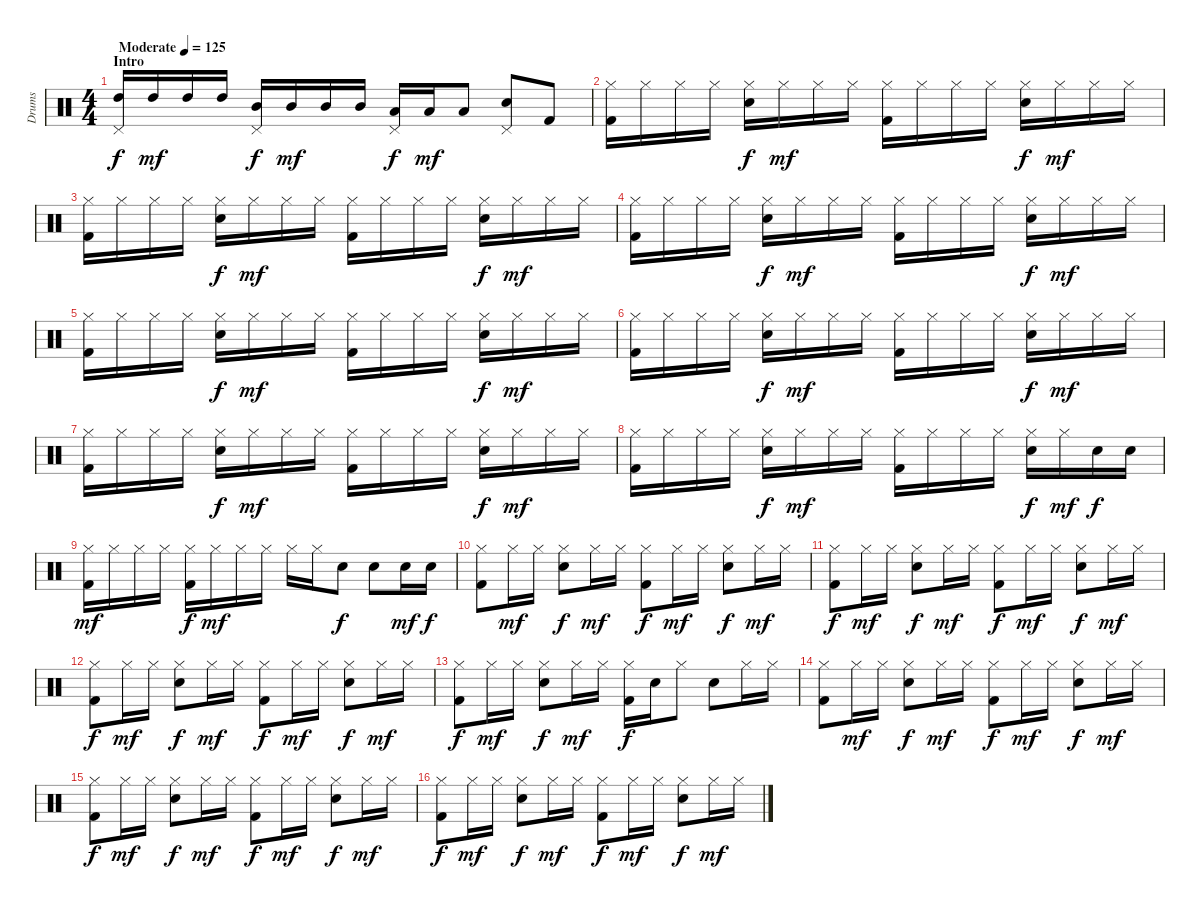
\track ("Drums" "Drums") {instrument percussion}
\staff {score}
\articulation defaults
\ts (4 4)
\section ("" "Intro")
\tempo (125 "Moderate")
\clef neutral
\ks c
("Pedal Hi-Hat (hit)" "High Tom (hit)").16{dy f} "High Tom (hit)".16{dy mf} "High Tom (hit)".16 "High Tom (hit)".16 ("Pedal Hi-Hat (hit)" "Mid Tom (hit)").16{dy f} "Mid Tom (hit)".16{dy mf} "Mid Tom (hit)".16 "Mid Tom (hit)".16 ("Pedal Hi-Hat (hit)" "Low Tom (hit)").16{dy f} "Low Tom (hit)".16{dy mf} "Low Tom (hit)".8 ("Pedal Hi-Hat (hit)" "Snare (hit) 2").8 "Kick (hit) 2".8 |
("Hi-Hat (closed)" "Kick (hit) 2").16 "Hi-Hat (closed)".16 "Hi-Hat (closed)".16 "Hi-Hat (closed)".16 ("Hi-Hat (closed)" "Snare (hit) 2").16{dy f} "Hi-Hat (closed)".16{dy mf} "Hi-Hat (closed)".16 "Hi-Hat (closed)".16 ("Hi-Hat (closed)" "Kick (hit) 2").16 "Hi-Hat (closed)".16 "Hi-Hat (closed)".16 "Hi-Hat (closed)".16 ("Hi-Hat (closed)" "Snare (hit) 2").16{dy f} "Hi-Hat (closed)".16{dy mf} "Hi-Hat (closed)".16 "Hi-Hat (closed)".16 |
("Hi-Hat (closed)" "Kick (hit) 2").16 "Hi-Hat (closed)".16 "Hi-Hat (closed)".16 "Hi-Hat (closed)".16 ("Hi-Hat (closed)" "Snare (hit) 2").16{dy f} "Hi-Hat (closed)".16{dy mf} "Hi-Hat (closed)".16 "Hi-Hat (closed)".16 ("Hi-Hat (closed)" "Kick (hit) 2").16 "Hi-Hat (closed)".16 "Hi-Hat (closed)".16 "Hi-Hat (closed)".16 ("Hi-Hat (closed)" "Snare (hit) 2").16{dy f} "Hi-Hat (closed)".16{dy mf} "Hi-Hat (closed)".16 "Hi-Hat (closed)".16 |
("Hi-Hat (closed)" "Kick (hit) 2").16 "Hi-Hat (closed)".16 "Hi-Hat (closed)".16 "Hi-Hat (closed)".16 ("Hi-Hat (closed)" "Snare (hit) 2").16{dy f} "Hi-Hat (closed)".16{dy mf} "Hi-Hat (closed)".16 "Hi-Hat (closed)".16 ("Hi-Hat (closed)" "Kick (hit) 2").16 "Hi-Hat (closed)".16 "Hi-Hat (closed)".16 "Hi-Hat (closed)".16 ("Hi-Hat (closed)" "Snare (hit) 2").16{dy f} "Hi-Hat (closed)".16{dy mf} "Hi-Hat (closed)".16 "Hi-Hat (closed)".16 |
("Hi-Hat (closed)" "Kick (hit) 2").16 "Hi-Hat (closed)".16 "Hi-Hat (closed)".16 "Hi-Hat (closed)".16 ("Hi-Hat (closed)" "Snare (hit) 2").16{dy f} "Hi-Hat (closed)".16{dy mf} "Hi-Hat (closed)".16 "Hi-Hat (closed)".16 ("Hi-Hat (closed)" "Kick (hit) 2").16 "Hi-Hat (closed)".16 "Hi-Hat (closed)".16 "Hi-Hat (closed)".16 ("Hi-Hat (closed)" "Snare (hit) 2").16{dy f} "Hi-Hat (closed)".16{dy mf} "Hi-Hat (closed)".16 "Hi-Hat (closed)".16 |
("Hi-Hat (closed)" "Kick (hit) 2").16 "Hi-Hat (closed)".16 "Hi-Hat (closed)".16 "Hi-Hat (closed)".16 ("Hi-Hat (closed)" "Snare (hit) 2").16{dy f} "Hi-Hat (closed)".16{dy mf} "Hi-Hat (closed)".16 "Hi-Hat (closed)".16 ("Hi-Hat (closed)" "Kick (hit) 2").16 "Hi-Hat (closed)".16 "Hi-Hat (closed)".16 "Hi-Hat (closed)".16 ("Hi-Hat (closed)" "Snare (hit) 2").16{dy f} "Hi-Hat (closed)".16{dy mf} "Hi-Hat (closed)".16 "Hi-Hat (closed)".16 |
("Hi-Hat (closed)" "Kick (hit) 2").16 "Hi-Hat (closed)".16 "Hi-Hat (closed)".16 "Hi-Hat (closed)".16 ("Hi-Hat (closed)" "Snare (hit) 2").16{dy f} "Hi-Hat (closed)".16{dy mf} "Hi-Hat (closed)".16 "Hi-Hat (closed)".16 ("Hi-Hat (closed)" "Kick (hit) 2").16 "Hi-Hat (closed)".16 "Hi-Hat (closed)".16 "Hi-Hat (closed)".16 ("Hi-Hat (closed)" "Snare (hit) 2").16{dy f} "Hi-Hat (closed)".16{dy mf} "Hi-Hat (closed)".16 "Hi-Hat (closed)".16 |
("Hi-Hat (closed)" "Kick (hit) 2").16 "Hi-Hat (closed)".16 "Hi-Hat (closed)".16 "Hi-Hat (closed)".16 ("Hi-Hat (closed)" "Snare (hit) 2").16{dy f} "Hi-Hat (closed)".16{dy mf} "Hi-Hat (closed)".16 "Hi-Hat (closed)".16 ("Hi-Hat (closed)" "Kick (hit) 2").16 "Hi-Hat (closed)".16 "Hi-Hat (closed)".16 "Hi-Hat (closed)".16 ("Hi-Hat (closed)" "Snare (hit) 2").16{dy f} "Hi-Hat (closed)".16{dy mf} "Snare (hit) 2".16{dy f} "Snare (hit) 2".16 |
("Hi-Hat (closed)" "Kick (hit) 2").16{dy mf} "Hi-Hat (closed)".16 "Hi-Hat (closed)".16 "Hi-Hat (closed)".16 ("Hi-Hat (closed)" "Kick (hit) 2").16{dy f} "Hi-Hat (closed)".16{dy mf} "Hi-Hat (closed)".16 "Hi-Hat (closed)".16 "Hi-Hat (closed)".16 "Hi-Hat (closed)".16 "Snare (hit) 2".8{dy f} "Snare (hit) 2".8 "Snare (hit) 2".16{dy mf} "Snare (hit) 2".16{dy f} |
("Hi-Hat (closed)" "Kick (hit) 2").8 "Hi-Hat (closed)".16{dy mf} "Hi-Hat (closed)".16 ("Hi-Hat (closed)" "Snare (hit) 2").8{dy f} "Hi-Hat (closed)".16{dy mf} "Hi-Hat (closed)".16 ("Hi-Hat (closed)" "Kick (hit) 2").8{dy f} "Hi-Hat (closed)".16{dy mf} "Hi-Hat (closed)".16 ("Hi-Hat (closed)" "Snare (hit) 2").8{dy f} "Hi-Hat (closed)".16{dy mf} "Hi-Hat (closed)".16 |
("Hi-Hat (closed)" "Kick (hit) 2").8{dy f} "Hi-Hat (closed)".16{dy mf} "Hi-Hat (closed)".16 ("Hi-Hat (closed)" "Snare (hit) 2").8{dy f} "Hi-Hat (closed)".16{dy mf} "Hi-Hat (closed)".16 ("Hi-Hat (closed)" "Kick (hit) 2").8{dy f} "Hi-Hat (closed)".16{dy mf} "Hi-Hat (closed)".16 ("Hi-Hat (closed)" "Snare (hit) 2").8{dy f} "Hi-Hat (closed)".16{dy mf} "Hi-Hat (closed)".16 |
("Hi-Hat (closed)" "Kick (hit) 2").8{dy f} "Hi-Hat (closed)".16{dy mf} "Hi-Hat (closed)".16 ("Hi-Hat (closed)" "Snare (hit) 2").8{dy f} "Hi-Hat (closed)".16{dy mf} "Hi-Hat (closed)".16 ("Hi-Hat (closed)" "Kick (hit) 2").8{dy f} "Hi-Hat (closed)".16{dy mf} "Hi-Hat (closed)".16 ("Hi-Hat (closed)" "Snare (hit) 2").8{dy f} "Hi-Hat (closed)".16{dy mf} "Hi-Hat (closed)".16 |
("Hi-Hat (closed)" "Kick (hit) 2").8{dy f} "Hi-Hat (closed)".16{dy mf} "Hi-Hat (closed)".16 ("Hi-Hat (closed)" "Snare (hit) 2").8{dy f} "Hi-Hat (closed)".16{dy mf} "Hi-Hat (closed)".16 ("Hi-Hat (closed)" "Kick (hit) 2").16{dy f} "Snare (hit) 2".16 "Hi-Hat (closed)".8 "Snare (hit) 2".8 "Hi-Hat (closed)".16 "Hi-Hat (closed)".16 |
("Hi-Hat (closed)" "Kick (hit) 2").8 "Hi-Hat (closed)".16{dy mf} "Hi-Hat (closed)".16 ("Hi-Hat (closed)" "Snare (hit) 2").8{dy f} "Hi-Hat (closed)".16{dy mf} "Hi-Hat (closed)".16 ("Hi-Hat (closed)" "Kick (hit) 2").8{dy f} "Hi-Hat (closed)".16{dy mf} "Hi-Hat (closed)".16 ("Hi-Hat (closed)" "Snare (hit) 2").8{dy f} "Hi-Hat (closed)".16{dy mf} "Hi-Hat (closed)".16 |
("Hi-Hat (closed)" "Kick (hit) 2").8{dy f} "Hi-Hat (closed)".16{dy mf} "Hi-Hat (closed)".16 ("Hi-Hat (closed)" "Snare (hit) 2").8{dy f} "Hi-Hat (closed)".16{dy mf} "Hi-Hat (closed)".16 ("Hi-Hat (closed)" "Kick (hit) 2").8{dy f} "Hi-Hat (closed)".16{dy mf} "Hi-Hat (closed)".16 ("Hi-Hat (closed)" "Snare (hit) 2").8{dy f} "Hi-Hat (closed)".16{dy mf} "Hi-Hat (closed)".16 |
("Hi-Hat (closed)" "Kick (hit) 2").8{dy f} "Hi-Hat (closed)".16{dy mf} "Hi-Hat (closed)".16 ("Hi-Hat (closed)" "Snare (hit) 2").8{dy f} "Hi-Hat (closed)".16{dy mf} "Hi-Hat (closed)".16 ("Hi-Hat (closed)" "Kick (hit) 2").8{dy f} "Hi-Hat (closed)".16{dy mf} "Hi-Hat (closed)".16 ("Hi-Hat (closed)" "Snare (hit) 2").8{dy f} "Hi-Hat (closed)".16{dy mf} "Hi-Hat (closed)".16
